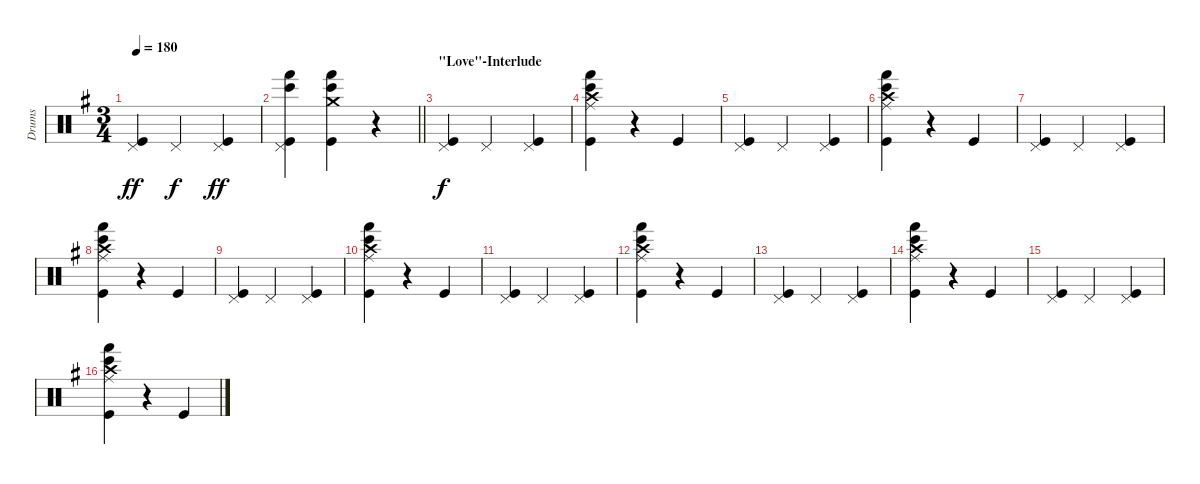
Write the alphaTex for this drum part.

\track ("Drums" "Drums") {instrument percussion bank 24}
\staff {score}
\articulation defaults
\ts (3 4)
\tempo 180
\clef neutral
\ks eminor
("Pedal Hi-Hat (hit)" "Kick (hit)").4{dy ff} "Pedal Hi-Hat (hit)".4{dy f} ("Pedal Hi-Hat (hit)" "Kick (hit)").4{dy ff} |
\barLineRight lightlight
("Pedal Hi-Hat (hit)" "Bongo High (hit)" "Hand (hit)" "Kick (hit)").4 ("Crash medium (hit)" "Bongo High (hit)" "Hand (hit)" "Kick (hit)").4 r.4 |
\section ("" "\"Love\"-Interlude")
("Pedal Hi-Hat (hit)" "Kick (hit)").4{dy f} "Pedal Hi-Hat (hit)".4 ("Pedal Hi-Hat (hit)" "Kick (hit)").4 |
("Crash high (hit)" "Ride (middle)" "Bongo High (hit)" "Hand (hit)" "Kick (hit)").4 r.4 "Kick (hit)".4 |
("Pedal Hi-Hat (hit)" "Kick (hit)").4 "Pedal Hi-Hat (hit)".4 ("Pedal Hi-Hat (hit)" "Kick (hit)").4 |
("Crash high (hit)" "Ride (middle)" "Bongo High (hit)" "Hand (hit)" "Kick (hit)").4 r.4 "Kick (hit)".4 |
("Pedal Hi-Hat (hit)" "Kick (hit)").4 "Pedal Hi-Hat (hit)".4 ("Pedal Hi-Hat (hit)" "Kick (hit)").4 |
("Crash high (hit)" "Ride (middle)" "Bongo High (hit)" "Hand (hit)" "Kick (hit)").4 r.4 "Kick (hit)".4 |
("Pedal Hi-Hat (hit)" "Kick (hit)").4 "Pedal Hi-Hat (hit)".4 ("Pedal Hi-Hat (hit)" "Kick (hit)").4 |
("Crash high (hit)" "Ride (middle)" "Bongo High (hit)" "Hand (hit)" "Kick (hit)").4 r.4 "Kick (hit)".4 |
("Pedal Hi-Hat (hit)" "Kick (hit)").4 "Pedal Hi-Hat (hit)".4 ("Pedal Hi-Hat (hit)" "Kick (hit)").4 |
("Crash high (hit)" "Ride (middle)" "Bongo High (hit)" "Hand (hit)" "Kick (hit)").4 r.4 "Kick (hit)".4 |
("Pedal Hi-Hat (hit)" "Kick (hit)").4 "Pedal Hi-Hat (hit)".4 ("Pedal Hi-Hat (hit)" "Kick (hit)").4 |
("Crash high (hit)" "Ride (middle)" "Bongo High (hit)" "Hand (hit)" "Kick (hit)").4 r.4 "Kick (hit)".4 |
("Pedal Hi-Hat (hit)" "Kick (hit)").4 "Pedal Hi-Hat (hit)".4 ("Pedal Hi-Hat (hit)" "Kick (hit)").4 |
("Crash high (hit)" "Ride (middle)" "Bongo High (hit)" "Hand (hit)" "Kick (hit)").4 r.4 "Kick (hit)".4
